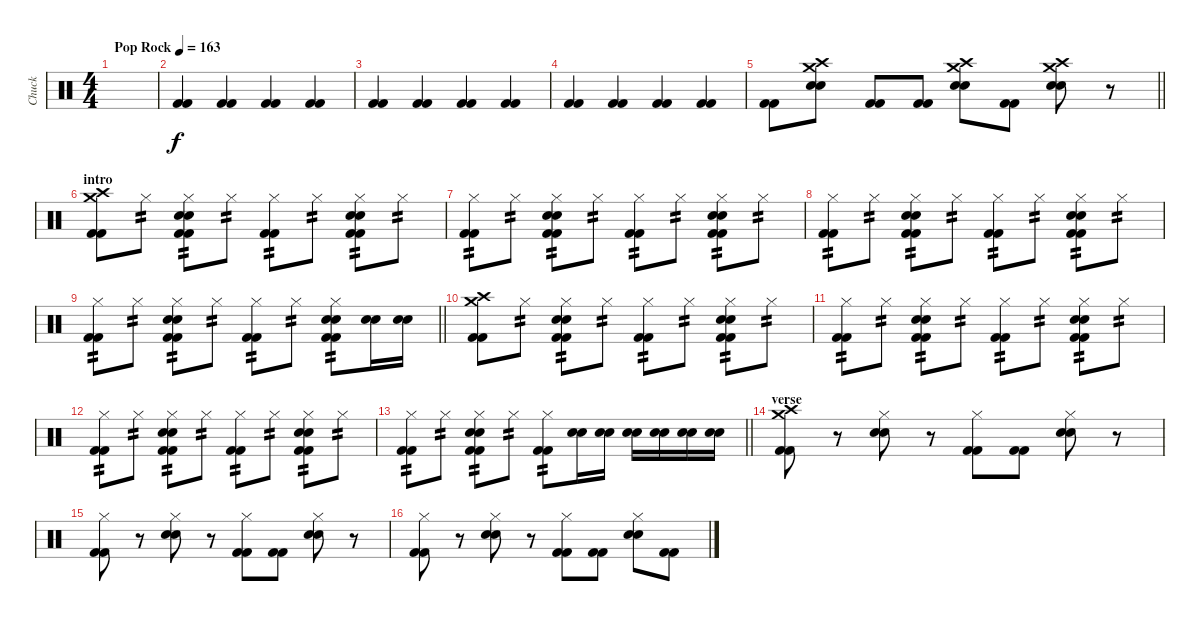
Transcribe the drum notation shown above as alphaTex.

\track ("Chuck" "Chuck") {instrument percussion}
\staff {score}
\articulation defaults
\ts (4 4)
\tempo (163 "Pop Rock")
\clef neutral
\ks c
|
("Kick (hit) 2" "Kick (hit) 2").4 ("Kick (hit) 2" "Kick (hit) 2").4 ("Kick (hit) 2" "Kick (hit) 2").4 ("Kick (hit) 2" "Kick (hit) 2").4 |
("Kick (hit) 2" "Kick (hit) 2").4 ("Kick (hit) 2" "Kick (hit) 2").4 ("Kick (hit) 2" "Kick (hit) 2").4 ("Kick (hit) 2" "Kick (hit) 2").4 |
("Kick (hit) 2" "Kick (hit) 2").4 ("Kick (hit) 2" "Kick (hit) 2").4 ("Kick (hit) 2" "Kick (hit) 2").4 ("Kick (hit) 2" "Kick (hit) 2").4 |
\barLineRight lightlight
("Kick (hit) 2" "Kick (hit) 2").8 ("Crash medium (hit)" "Crash high (hit)" "Snare (hit) 2" "Snare (hit) 2").8 ("Kick (hit) 2" "Kick (hit) 2").8 ("Kick (hit) 2" "Kick (hit) 2").8 ("Crash medium (hit)" "Crash high (hit)" "Snare (hit) 2" "Snare (hit) 2").8 ("Kick (hit) 2" "Kick (hit) 2").8 ("Crash medium (hit)" "Crash high (hit)" "Snare (hit) 2" "Snare (hit) 2").8 r.8 |
\section ("" "intro")
("Crash medium (hit)" "Crash high (hit)" "Kick (hit) 2" "Kick (hit) 2").8 "Hi-Hat (closed)".8{tp 2} ("Hi-Hat (closed)" "Snare (hit) 2" "Snare (hit) 2" "Kick (hit) 2" "Kick (hit) 2").8{tp 2} "Hi-Hat (closed)".8{tp 2} ("Hi-Hat (closed)" "Kick (hit) 2" "Kick (hit) 2").8{tp 2} "Hi-Hat (closed)".8{tp 2} ("Hi-Hat (closed)" "Snare (hit) 2" "Snare (hit) 2" "Kick (hit) 2" "Kick (hit) 2").8{tp 2} "Hi-Hat (closed)".8{tp 2} |
("Hi-Hat (closed)" "Kick (hit) 2" "Kick (hit) 2").8{tp 2} "Hi-Hat (closed)".8{tp 2} ("Hi-Hat (closed)" "Snare (hit) 2" "Snare (hit) 2" "Kick (hit) 2" "Kick (hit) 2").8{tp 2} "Hi-Hat (closed)".8{tp 2} ("Hi-Hat (closed)" "Kick (hit) 2" "Kick (hit) 2").8{tp 2} "Hi-Hat (closed)".8{tp 2} ("Hi-Hat (closed)" "Snare (hit) 2" "Snare (hit) 2" "Kick (hit) 2" "Kick (hit) 2").8{tp 2} "Hi-Hat (closed)".8{tp 2} |
("Hi-Hat (closed)" "Kick (hit) 2" "Kick (hit) 2").8{tp 2} "Hi-Hat (closed)".8{tp 2} ("Hi-Hat (closed)" "Snare (hit) 2" "Snare (hit) 2" "Kick (hit) 2" "Kick (hit) 2").8{tp 2} "Hi-Hat (closed)".8{tp 2} ("Hi-Hat (closed)" "Kick (hit) 2" "Kick (hit) 2").8{tp 2} "Hi-Hat (closed)".8{tp 2} ("Hi-Hat (closed)" "Snare (hit) 2" "Snare (hit) 2" "Kick (hit) 2" "Kick (hit) 2").8{tp 2} "Hi-Hat (closed)".8{tp 2} |
\barLineRight lightlight
("Hi-Hat (closed)" "Kick (hit) 2" "Kick (hit) 2").8{tp 2} "Hi-Hat (closed)".8{tp 2} ("Hi-Hat (closed)" "Snare (hit) 2" "Snare (hit) 2" "Kick (hit) 2" "Kick (hit) 2").8{tp 2} "Hi-Hat (closed)".8{tp 2} ("Hi-Hat (closed)" "Kick (hit) 2" "Kick (hit) 2").8{tp 2} "Hi-Hat (closed)".8{tp 2} ("Hi-Hat (closed)" "Snare (hit) 2" "Snare (hit) 2" "Kick (hit) 2" "Kick (hit) 2").8{tp 2} ("Snare (hit) 2" "Snare (hit) 2").16 ("Snare (hit) 2" "Snare (hit) 2").16 |
("Crash medium (hit)" "Crash high (hit)" "Kick (hit) 2" "Kick (hit) 2").8 "Hi-Hat (closed)".8{tp 2} ("Hi-Hat (closed)" "Snare (hit) 2" "Snare (hit) 2" "Kick (hit) 2" "Kick (hit) 2").8{tp 2} "Hi-Hat (closed)".8{tp 2} ("Hi-Hat (closed)" "Kick (hit) 2" "Kick (hit) 2").8{tp 2} "Hi-Hat (closed)".8{tp 2} ("Hi-Hat (closed)" "Snare (hit) 2" "Snare (hit) 2" "Kick (hit) 2" "Kick (hit) 2").8{tp 2} "Hi-Hat (closed)".8{tp 2} |
("Hi-Hat (closed)" "Kick (hit) 2" "Kick (hit) 2").8{tp 2} "Hi-Hat (closed)".8{tp 2} ("Hi-Hat (closed)" "Snare (hit) 2" "Snare (hit) 2" "Kick (hit) 2" "Kick (hit) 2").8{tp 2} "Hi-Hat (closed)".8{tp 2} ("Hi-Hat (closed)" "Kick (hit) 2" "Kick (hit) 2").8{tp 2} "Hi-Hat (closed)".8{tp 2} ("Hi-Hat (closed)" "Snare (hit) 2" "Snare (hit) 2" "Kick (hit) 2" "Kick (hit) 2").8{tp 2} "Hi-Hat (closed)".8{tp 2} |
("Hi-Hat (closed)" "Kick (hit) 2" "Kick (hit) 2").8{tp 2} "Hi-Hat (closed)".8{tp 2} ("Hi-Hat (closed)" "Snare (hit) 2" "Snare (hit) 2" "Kick (hit) 2" "Kick (hit) 2").8{tp 2} "Hi-Hat (closed)".8{tp 2} ("Hi-Hat (closed)" "Kick (hit) 2" "Kick (hit) 2").8{tp 2} "Hi-Hat (closed)".8{tp 2} ("Hi-Hat (closed)" "Snare (hit) 2" "Snare (hit) 2" "Kick (hit) 2" "Kick (hit) 2").8{tp 2} "Hi-Hat (closed)".8{tp 2} |
\barLineRight lightlight
("Hi-Hat (closed)" "Kick (hit) 2" "Kick (hit) 2").8{tp 2} "Hi-Hat (closed)".8{tp 2} ("Hi-Hat (closed)" "Snare (hit) 2" "Snare (hit) 2" "Kick (hit) 2" "Kick (hit) 2").8{tp 2} "Hi-Hat (closed)".8{tp 2} ("Hi-Hat (closed)" "Kick (hit) 2" "Kick (hit) 2").8{tp 2} ("Snare (hit) 2" "Snare (hit) 2").16 ("Snare (hit) 2" "Snare (hit) 2").16 ("Snare (hit) 2" "Snare (hit) 2").16 ("Snare (hit) 2" "Snare (hit) 2").16 ("Snare (hit) 2" "Snare (hit) 2").16 ("Snare (hit) 2" "Snare (hit) 2").16 |
\section ("" "verse")
("Crash medium (hit)" "Crash high (hit)" "Kick (hit) 2" "Kick (hit) 2").8 r.8 ("Hi-Hat (closed)" "Snare (hit) 2" "Snare (hit) 2").8 r.8 ("Hi-Hat (closed)" "Kick (hit) 2" "Kick (hit) 2").8 ("Kick (hit) 2" "Kick (hit) 2").8 ("Hi-Hat (closed)" "Snare (hit) 2" "Snare (hit) 2").8 r.8 |
("Hi-Hat (closed)" "Kick (hit) 2" "Kick (hit) 2").8 r.8 ("Hi-Hat (closed)" "Snare (hit) 2" "Snare (hit) 2").8 r.8 ("Hi-Hat (closed)" "Kick (hit) 2" "Kick (hit) 2").8 ("Kick (hit) 2" "Kick (hit) 2").8 ("Hi-Hat (closed)" "Snare (hit) 2" "Snare (hit) 2").8 r.8 |
("Hi-Hat (closed)" "Kick (hit) 2" "Kick (hit) 2").8 r.8 ("Hi-Hat (closed)" "Snare (hit) 2" "Snare (hit) 2").8 r.8 ("Hi-Hat (closed)" "Kick (hit) 2" "Kick (hit) 2").8 ("Kick (hit) 2" "Kick (hit) 2").8 ("Hi-Hat (closed)" "Snare (hit) 2" "Snare (hit) 2").8 ("Kick (hit) 2" "Kick (hit) 2").8
